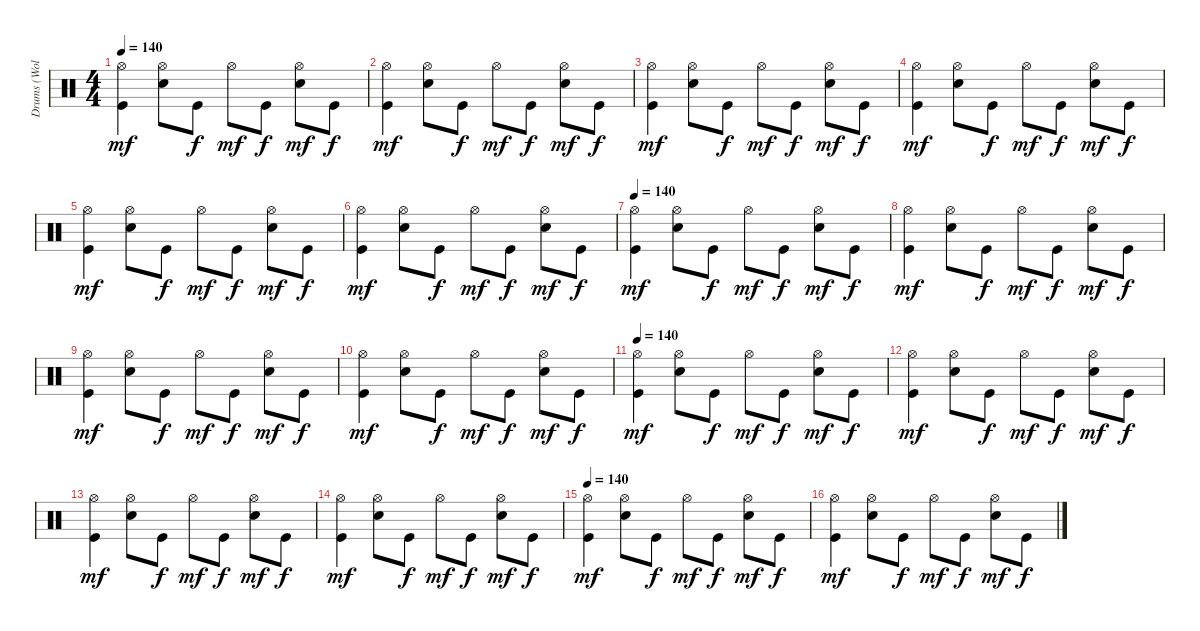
\track ("Drums (Wolf Simons)" "Drums (Wol") {instrument percussion}
\staff {score}
\articulation defaults
\ts (4 4)
\tempo 140
\clef neutral
\ks c
("Kick (hit)" "Hi-Hat (open)").4{dy mf} ("Electric Snare (hit)" "Hi-Hat (open)").8 "Kick (hit)".8{dy f} "Hi-Hat (open)".8{dy mf} "Kick (hit)".8{dy f} ("Electric Snare (hit)" "Hi-Hat (open)").8{dy mf} "Kick (hit)".8{dy f} |
("Kick (hit)" "Hi-Hat (open)").4{dy mf} ("Electric Snare (hit)" "Hi-Hat (open)").8 "Kick (hit)".8{dy f} "Hi-Hat (open)".8{dy mf} "Kick (hit)".8{dy f} ("Electric Snare (hit)" "Hi-Hat (open)").8{dy mf} "Kick (hit)".8{dy f} |
("Kick (hit)" "Hi-Hat (open)").4{dy mf} ("Electric Snare (hit)" "Hi-Hat (open)").8 "Kick (hit)".8{dy f} "Hi-Hat (open)".8{dy mf} "Kick (hit)".8{dy f} ("Electric Snare (hit)" "Hi-Hat (open)").8{dy mf} "Kick (hit)".8{dy f} |
("Kick (hit)" "Hi-Hat (open)").4{dy mf} ("Electric Snare (hit)" "Hi-Hat (open)").8 "Kick (hit)".8{dy f} "Hi-Hat (open)".8{dy mf} "Kick (hit)".8{dy f} ("Electric Snare (hit)" "Hi-Hat (open)").8{dy mf} "Kick (hit)".8{dy f} |
("Kick (hit)" "Hi-Hat (open)").4{dy mf} ("Electric Snare (hit)" "Hi-Hat (open)").8 "Kick (hit)".8{dy f} "Hi-Hat (open)".8{dy mf} "Kick (hit)".8{dy f} ("Electric Snare (hit)" "Hi-Hat (open)").8{dy mf} "Kick (hit)".8{dy f} |
("Kick (hit)" "Hi-Hat (open)").4{dy mf} ("Electric Snare (hit)" "Hi-Hat (open)").8 "Kick (hit)".8{dy f} "Hi-Hat (open)".8{dy mf} "Kick (hit)".8{dy f} ("Electric Snare (hit)" "Hi-Hat (open)").8{dy mf} "Kick (hit)".8{dy f} |
\tempo 140
("Kick (hit)" "Hi-Hat (open)").4{dy mf} ("Electric Snare (hit)" "Hi-Hat (open)").8 "Kick (hit)".8{dy f} "Hi-Hat (open)".8{dy mf} "Kick (hit)".8{dy f} ("Electric Snare (hit)" "Hi-Hat (open)").8{dy mf} "Kick (hit)".8{dy f} |
("Kick (hit)" "Hi-Hat (open)").4{dy mf} ("Electric Snare (hit)" "Hi-Hat (open)").8 "Kick (hit)".8{dy f} "Hi-Hat (open)".8{dy mf} "Kick (hit)".8{dy f} ("Electric Snare (hit)" "Hi-Hat (open)").8{dy mf} "Kick (hit)".8{dy f} |
("Kick (hit)" "Hi-Hat (open)").4{dy mf} ("Electric Snare (hit)" "Hi-Hat (open)").8 "Kick (hit)".8{dy f} "Hi-Hat (open)".8{dy mf} "Kick (hit)".8{dy f} ("Electric Snare (hit)" "Hi-Hat (open)").8{dy mf} "Kick (hit)".8{dy f} |
("Kick (hit)" "Hi-Hat (open)").4{dy mf} ("Electric Snare (hit)" "Hi-Hat (open)").8 "Kick (hit)".8{dy f} "Hi-Hat (open)".8{dy mf} "Kick (hit)".8{dy f} ("Electric Snare (hit)" "Hi-Hat (open)").8{dy mf} "Kick (hit)".8{dy f} |
\tempo 140
("Kick (hit)" "Hi-Hat (open)").4{dy mf} ("Electric Snare (hit)" "Hi-Hat (open)").8 "Kick (hit)".8{dy f} "Hi-Hat (open)".8{dy mf} "Kick (hit)".8{dy f} ("Electric Snare (hit)" "Hi-Hat (open)").8{dy mf} "Kick (hit)".8{dy f} |
("Kick (hit)" "Hi-Hat (open)").4{dy mf} ("Electric Snare (hit)" "Hi-Hat (open)").8 "Kick (hit)".8{dy f} "Hi-Hat (open)".8{dy mf} "Kick (hit)".8{dy f} ("Electric Snare (hit)" "Hi-Hat (open)").8{dy mf} "Kick (hit)".8{dy f} |
("Kick (hit)" "Hi-Hat (open)").4{dy mf} ("Electric Snare (hit)" "Hi-Hat (open)").8 "Kick (hit)".8{dy f} "Hi-Hat (open)".8{dy mf} "Kick (hit)".8{dy f} ("Electric Snare (hit)" "Hi-Hat (open)").8{dy mf} "Kick (hit)".8{dy f} |
("Kick (hit)" "Hi-Hat (open)").4{dy mf} ("Electric Snare (hit)" "Hi-Hat (open)").8 "Kick (hit)".8{dy f} "Hi-Hat (open)".8{dy mf} "Kick (hit)".8{dy f} ("Electric Snare (hit)" "Hi-Hat (open)").8{dy mf} "Kick (hit)".8{dy f} |
\tempo 140
("Kick (hit)" "Hi-Hat (open)").4{dy mf} ("Electric Snare (hit)" "Hi-Hat (open)").8 "Kick (hit)".8{dy f} "Hi-Hat (open)".8{dy mf} "Kick (hit)".8{dy f} ("Electric Snare (hit)" "Hi-Hat (open)").8{dy mf} "Kick (hit)".8{dy f} |
("Kick (hit)" "Hi-Hat (open)").4{dy mf} ("Electric Snare (hit)" "Hi-Hat (open)").8 "Kick (hit)".8{dy f} "Hi-Hat (open)".8{dy mf} "Kick (hit)".8{dy f} ("Electric Snare (hit)" "Hi-Hat (open)").8{dy mf} "Kick (hit)".8{dy f}
